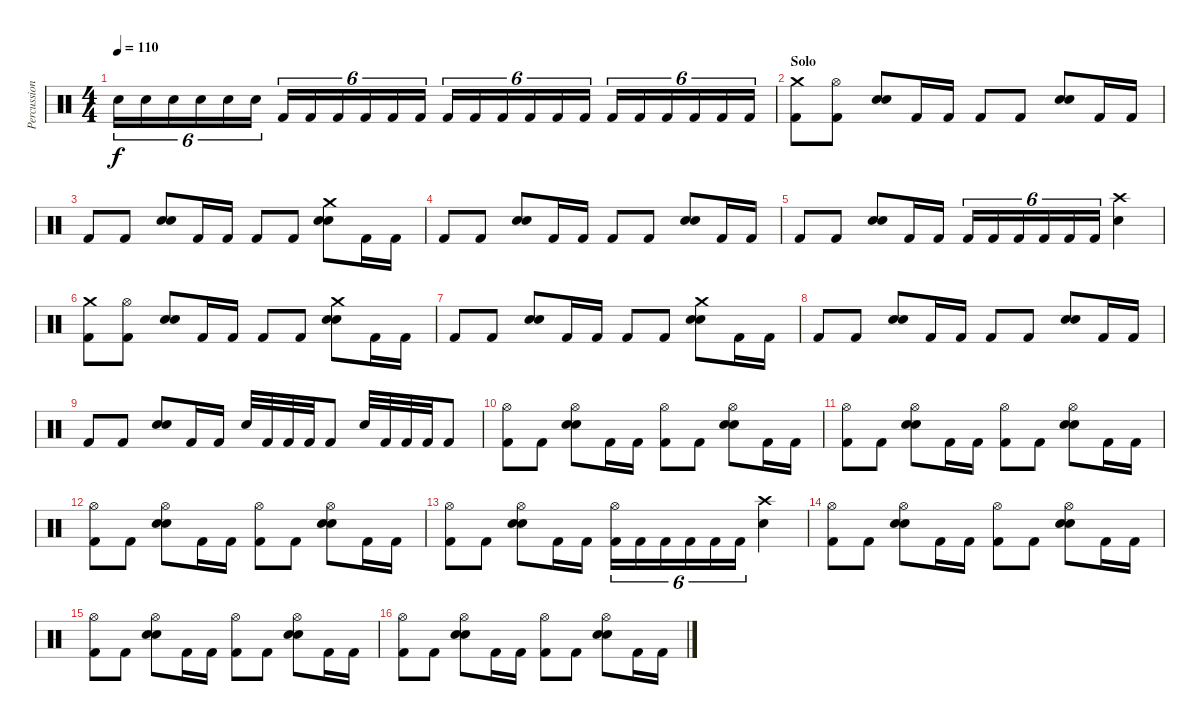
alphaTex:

\track ("Percussion" "Percussion") {instrument percussion}
\staff {score}
\articulation defaults
\ts (4 4)
\tempo 110
\clef neutral
\ks c "Electric Snare (hit)".16{tu (6 4) dy f balance 8} "Electric Snare (hit)".16{tu (6 4)} "Electric Snare (hit)".16{tu (6 4)} "Electric Snare (hit)".16{tu (6 4)} "Electric Snare (hit)".16{tu (6 4)} "Electric Snare (hit)".16{tu (6 4)} "Kick (hit) 2".16{tu (6 4) balance 1} "Kick (hit) 2".16{tu (6 4)} "Kick (hit) 2".16{tu (6 4)} "Kick (hit) 2".16{tu (6 4)} "Kick (hit) 2".16{tu (6 4)} "Kick (hit) 2".16{tu (6 4)} "Kick (hit) 2".16{tu (6 4) balance 8} "Kick (hit) 2".16{tu (6 4)} "Kick (hit) 2".16{tu (6 4)} "Kick (hit) 2".16{tu (6 4)} "Kick (hit) 2".16{tu (6 4)} "Kick (hit) 2".16{tu (6 4)} "Kick (hit) 2".16{tu (6 4) balance 1} "Kick (hit) 2".16{tu (6 4)} "Kick (hit) 2".16{tu (6 4)} "Kick (hit) 2".16{tu (6 4)} "Kick (hit) 2".16{tu (6 4)} "Kick (hit) 2".16{tu (6 4)}
|
\section ("" "Solo")
("Crash medium (hit)" "Kick (hit) 2").8{balance 8} ("Hi-Hat (open)" "Kick (hit) 2").8 ("Electric Snare (hit)" "Electric Snare (hit)").8 "Kick (hit) 2".16 "Kick (hit) 2".16 "Kick (hit) 2".8 "Kick (hit) 2".8 ("Electric Snare (hit)" "Electric Snare (hit)").8 "Kick (hit) 2".16 "Kick (hit) 2".16 |
"Kick (hit) 2".8 "Kick (hit) 2".8 ("Electric Snare (hit)" "Electric Snare (hit)").8 "Kick (hit) 2".16 "Kick (hit) 2".16 "Kick (hit) 2".8 "Kick (hit) 2".8 ("Crash medium (hit)" "Electric Snare (hit)" "Electric Snare (hit)").8 "Kick (hit) 2".16 "Kick (hit) 2".16 |
"Kick (hit) 2".8 "Kick (hit) 2".8 ("Electric Snare (hit)" "Electric Snare (hit)").8 "Kick (hit) 2".16 "Kick (hit) 2".16 "Kick (hit) 2".8 "Kick (hit) 2".8 ("Electric Snare (hit)" "Electric Snare (hit)").8 "Kick (hit) 2".16 "Kick (hit) 2".16 |
"Kick (hit) 2".8 "Kick (hit) 2".8 ("Electric Snare (hit)" "Electric Snare (hit)").8 "Kick (hit) 2".16 "Kick (hit) 2".16 "Kick (hit) 2".16{tu (6 4)} "Kick (hit) 2".16{tu (6 4)} "Kick (hit) 2".16{tu (6 4)} "Kick (hit) 2".16{tu (6 4)} "Kick (hit) 2".16{tu (6 4)} "Kick (hit) 2".16{tu (6 4)} ("Electric Snare (hit)" "Crash high (hit)").4 |
("Crash medium (hit)" "Kick (hit) 2").8{balance 8} ("Hi-Hat (open)" "Kick (hit) 2").8 ("Electric Snare (hit)" "Electric Snare (hit)").8 "Kick (hit) 2".16 "Kick (hit) 2".16 "Kick (hit) 2".8 "Kick (hit) 2".8 ("Crash medium (hit)" "Electric Snare (hit)" "Electric Snare (hit)").8 "Kick (hit) 2".16 "Kick (hit) 2".16 |
"Kick (hit) 2".8 "Kick (hit) 2".8 ("Electric Snare (hit)" "Electric Snare (hit)").8 "Kick (hit) 2".16 "Kick (hit) 2".16 "Kick (hit) 2".8 "Kick (hit) 2".8 ("Crash medium (hit)" "Electric Snare (hit)" "Electric Snare (hit)").8 "Kick (hit) 2".16 "Kick (hit) 2".16 |
"Kick (hit) 2".8 "Kick (hit) 2".8 ("Electric Snare (hit)" "Electric Snare (hit)").8 "Kick (hit) 2".16 "Kick (hit) 2".16 "Kick (hit) 2".8 "Kick (hit) 2".8 ("Electric Snare (hit)" "Electric Snare (hit)").8 "Kick (hit) 2".16 "Kick (hit) 2".16 |
"Kick (hit) 2".8 "Kick (hit) 2".8 ("Electric Snare (hit)" "Electric Snare (hit)").8 "Kick (hit) 2".16 "Kick (hit) 2".16 "Electric Snare (hit)".32 "Kick (hit) 2".32 "Kick (hit) 2".32 "Kick (hit) 2".32 "Kick (hit) 2".8 "Electric Snare (hit)".32 "Kick (hit) 2".32 "Kick (hit) 2".32 "Kick (hit) 2".32 "Kick (hit) 2".8 |
("Hi-Hat (open)" "Kick (hit) 2").8 "Kick (hit) 2".8 ("Hi-Hat (open)" "Electric Snare (hit)" "Electric Snare (hit)").8 "Kick (hit) 2".16 "Kick (hit) 2".16 ("Hi-Hat (open)" "Kick (hit) 2").8 "Kick (hit) 2".8 ("Hi-Hat (open)" "Electric Snare (hit)" "Electric Snare (hit)").8 "Kick (hit) 2".16 "Kick (hit) 2".16 |
("Hi-Hat (open)" "Kick (hit) 2").8 "Kick (hit) 2".8 ("Hi-Hat (open)" "Electric Snare (hit)" "Electric Snare (hit)").8 "Kick (hit) 2".16 "Kick (hit) 2".16 ("Hi-Hat (open)" "Kick (hit) 2").8 "Kick (hit) 2".8 ("Hi-Hat (open)" "Electric Snare (hit)" "Electric Snare (hit)").8 "Kick (hit) 2".16 "Kick (hit) 2".16 |
("Hi-Hat (open)" "Kick (hit) 2").8 "Kick (hit) 2".8 ("Hi-Hat (open)" "Electric Snare (hit)" "Electric Snare (hit)").8 "Kick (hit) 2".16 "Kick (hit) 2".16 ("Hi-Hat (open)" "Kick (hit) 2").8 "Kick (hit) 2".8 ("Hi-Hat (open)" "Electric Snare (hit)" "Electric Snare (hit)").8 "Kick (hit) 2".16 "Kick (hit) 2".16 |
("Hi-Hat (open)" "Kick (hit) 2").8 "Kick (hit) 2".8 ("Hi-Hat (open)" "Electric Snare (hit)" "Electric Snare (hit)").8 "Kick (hit) 2".16 "Kick (hit) 2".16 ("Hi-Hat (open)" "Kick (hit) 2").16{tu (6 4)} "Kick (hit) 2".16{tu (6 4)} "Kick (hit) 2".16{tu (6 4)} "Kick (hit) 2".16{tu (6 4)} "Kick (hit) 2".16{tu (6 4)} "Kick (hit) 2".16{tu (6 4)} ("Electric Snare (hit)" "Crash high (hit)").4 |
("Hi-Hat (open)" "Kick (hit) 2").8 "Kick (hit) 2".8 ("Hi-Hat (open)" "Electric Snare (hit)" "Electric Snare (hit)").8 "Kick (hit) 2".16 "Kick (hit) 2".16 ("Hi-Hat (open)" "Kick (hit) 2").8 "Kick (hit) 2".8 ("Hi-Hat (open)" "Electric Snare (hit)" "Electric Snare (hit)").8 "Kick (hit) 2".16 "Kick (hit) 2".16 |
("Hi-Hat (open)" "Kick (hit) 2").8 "Kick (hit) 2".8 ("Hi-Hat (open)" "Electric Snare (hit)" "Electric Snare (hit)").8 "Kick (hit) 2".16 "Kick (hit) 2".16 ("Hi-Hat (open)" "Kick (hit) 2").8 "Kick (hit) 2".8 ("Hi-Hat (open)" "Electric Snare (hit)" "Electric Snare (hit)").8 "Kick (hit) 2".16 "Kick (hit) 2".16 |
("Hi-Hat (open)" "Kick (hit) 2").8 "Kick (hit) 2".8 ("Hi-Hat (open)" "Electric Snare (hit)" "Electric Snare (hit)").8 "Kick (hit) 2".16 "Kick (hit) 2".16 ("Hi-Hat (open)" "Kick (hit) 2").8 "Kick (hit) 2".8 ("Hi-Hat (open)" "Electric Snare (hit)" "Electric Snare (hit)").8 "Kick (hit) 2".16 "Kick (hit) 2".16
